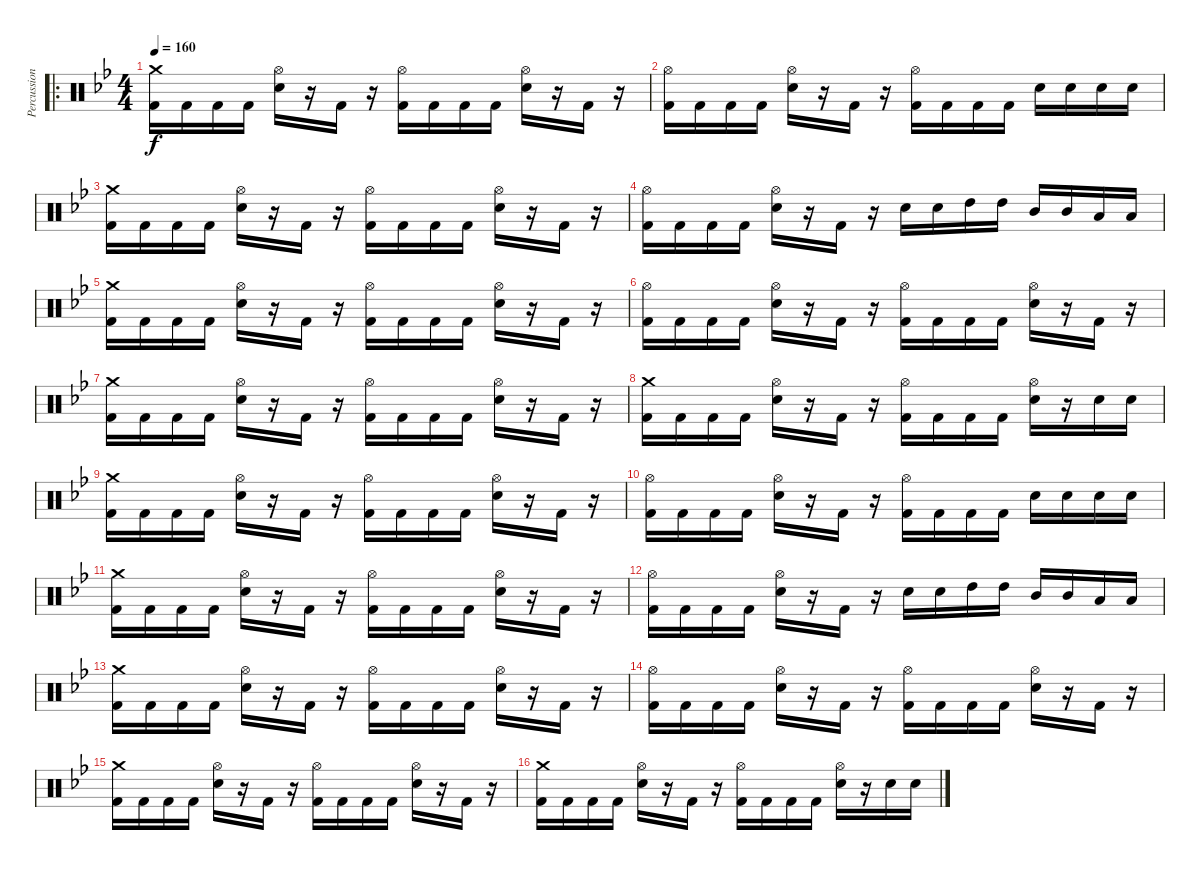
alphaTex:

\track ("Percussions" "Percussion") {instrument percussion}
\staff {score}
\articulation defaults
\ro
\ts (4 4)
\tempo 160
\clef neutral
\ks bb
("Crash medium (hit)" "Kick (hit) 2").16{dy f} "Kick (hit) 2".16 "Kick (hit) 2".16 "Kick (hit) 2".16 ("Hi-Hat (open)" "Snare (hit) 2").16 r.16 "Kick (hit) 2".16 r.16 ("Hi-Hat (open)" "Kick (hit) 2").16 "Kick (hit) 2".16 "Kick (hit) 2".16 "Kick (hit) 2".16 ("Hi-Hat (open)" "Snare (hit) 2").16 r.16 "Kick (hit) 2".16 r.16 |
("Hi-Hat (open)" "Kick (hit) 2").16 "Kick (hit) 2".16 "Kick (hit) 2".16 "Kick (hit) 2".16 ("Hi-Hat (open)" "Snare (hit) 2").16 r.16 "Kick (hit) 2".16 r.16 ("Hi-Hat (open)" "Kick (hit) 2").16 "Kick (hit) 2".16 "Kick (hit) 2".16 "Kick (hit) 2".16 "Snare (hit) 2".16 "Snare (hit) 2".16 "Snare (hit) 2".16 "Snare (hit) 2".16 |
("Crash medium (hit)" "Kick (hit) 2").16 "Kick (hit) 2".16 "Kick (hit) 2".16 "Kick (hit) 2".16 ("Hi-Hat (open)" "Snare (hit) 2").16 r.16 "Kick (hit) 2".16 r.16 ("Hi-Hat (open)" "Kick (hit) 2").16 "Kick (hit) 2".16 "Kick (hit) 2".16 "Kick (hit) 2".16 ("Hi-Hat (open)" "Snare (hit) 2").16 r.16 "Kick (hit) 2".16 r.16 |
("Hi-Hat (open)" "Kick (hit) 2").16 "Kick (hit) 2".16 "Kick (hit) 2".16 "Kick (hit) 2".16 ("Hi-Hat (open)" "Snare (hit) 2").16 r.16 "Kick (hit) 2".16 r.16 "Snare (hit) 2".16 "Snare (hit) 2".16 "High Tom (hit)".16 "High Tom (hit)".16 "Mid Tom (hit)".16 "Mid Tom (hit)".16 "Low Tom (hit)".16 "Low Tom (hit)".16 |
("Crash medium (hit)" "Kick (hit) 2").16 "Kick (hit) 2".16 "Kick (hit) 2".16 "Kick (hit) 2".16 ("Hi-Hat (open)" "Snare (hit) 2").16 r.16 "Kick (hit) 2".16 r.16 ("Hi-Hat (open)" "Kick (hit) 2").16 "Kick (hit) 2".16 "Kick (hit) 2".16 "Kick (hit) 2".16 ("Hi-Hat (open)" "Snare (hit) 2").16 r.16 "Kick (hit) 2".16 r.16 |
("Hi-Hat (open)" "Kick (hit) 2").16 "Kick (hit) 2".16 "Kick (hit) 2".16 "Kick (hit) 2".16 ("Hi-Hat (open)" "Snare (hit) 2").16 r.16 "Kick (hit) 2".16 r.16 ("Hi-Hat (open)" "Kick (hit) 2").16 "Kick (hit) 2".16 "Kick (hit) 2".16 "Kick (hit) 2".16 ("Hi-Hat (open)" "Snare (hit) 2").16 r.16 "Kick (hit) 2".16 r.16 |
("Crash medium (hit)" "Kick (hit) 2").16 "Kick (hit) 2".16 "Kick (hit) 2".16 "Kick (hit) 2".16 ("Hi-Hat (open)" "Snare (hit) 2").16 r.16 "Kick (hit) 2".16 r.16 ("Hi-Hat (open)" "Kick (hit) 2").16 "Kick (hit) 2".16 "Kick (hit) 2".16 "Kick (hit) 2".16 ("Hi-Hat (open)" "Snare (hit) 2").16 r.16 "Kick (hit) 2".16 r.16 |
("Crash medium (hit)" "Kick (hit) 2").16 "Kick (hit) 2".16 "Kick (hit) 2".16 "Kick (hit) 2".16 ("Hi-Hat (open)" "Snare (hit) 2").16 r.16 "Kick (hit) 2".16 r.16 ("Hi-Hat (open)" "Kick (hit) 2").16 "Kick (hit) 2".16 "Kick (hit) 2".16 "Kick (hit) 2".16 ("Hi-Hat (open)" "Snare (hit) 2").16 r.16 "Snare (hit) 2".16 "Snare (hit) 2".16 |
("Crash medium (hit)" "Kick (hit) 2").16 "Kick (hit) 2".16 "Kick (hit) 2".16 "Kick (hit) 2".16 ("Hi-Hat (open)" "Snare (hit) 2").16 r.16 "Kick (hit) 2".16 r.16 ("Hi-Hat (open)" "Kick (hit) 2").16 "Kick (hit) 2".16 "Kick (hit) 2".16 "Kick (hit) 2".16 ("Hi-Hat (open)" "Snare (hit) 2").16 r.16 "Kick (hit) 2".16 r.16 |
("Hi-Hat (open)" "Kick (hit) 2").16 "Kick (hit) 2".16 "Kick (hit) 2".16 "Kick (hit) 2".16 ("Hi-Hat (open)" "Snare (hit) 2").16 r.16 "Kick (hit) 2".16 r.16 ("Hi-Hat (open)" "Kick (hit) 2").16 "Kick (hit) 2".16 "Kick (hit) 2".16 "Kick (hit) 2".16 "Snare (hit) 2".16 "Snare (hit) 2".16 "Snare (hit) 2".16 "Snare (hit) 2".16 |
("Crash medium (hit)" "Kick (hit) 2").16 "Kick (hit) 2".16 "Kick (hit) 2".16 "Kick (hit) 2".16 ("Hi-Hat (open)" "Snare (hit) 2").16 r.16 "Kick (hit) 2".16 r.16 ("Hi-Hat (open)" "Kick (hit) 2").16 "Kick (hit) 2".16 "Kick (hit) 2".16 "Kick (hit) 2".16 ("Hi-Hat (open)" "Snare (hit) 2").16 r.16 "Kick (hit) 2".16 r.16 |
("Hi-Hat (open)" "Kick (hit) 2").16 "Kick (hit) 2".16 "Kick (hit) 2".16 "Kick (hit) 2".16 ("Hi-Hat (open)" "Snare (hit) 2").16 r.16 "Kick (hit) 2".16 r.16 "Snare (hit) 2".16 "Snare (hit) 2".16 "High Tom (hit)".16 "High Tom (hit)".16 "Mid Tom (hit)".16 "Mid Tom (hit)".16 "Low Tom (hit)".16 "Low Tom (hit)".16 |
("Crash medium (hit)" "Kick (hit) 2").16 "Kick (hit) 2".16 "Kick (hit) 2".16 "Kick (hit) 2".16 ("Hi-Hat (open)" "Snare (hit) 2").16 r.16 "Kick (hit) 2".16 r.16 ("Hi-Hat (open)" "Kick (hit) 2").16 "Kick (hit) 2".16 "Kick (hit) 2".16 "Kick (hit) 2".16 ("Hi-Hat (open)" "Snare (hit) 2").16 r.16 "Kick (hit) 2".16 r.16 |
("Hi-Hat (open)" "Kick (hit) 2").16 "Kick (hit) 2".16 "Kick (hit) 2".16 "Kick (hit) 2".16 ("Hi-Hat (open)" "Snare (hit) 2").16 r.16 "Kick (hit) 2".16 r.16 ("Hi-Hat (open)" "Kick (hit) 2").16 "Kick (hit) 2".16 "Kick (hit) 2".16 "Kick (hit) 2".16 ("Hi-Hat (open)" "Snare (hit) 2").16 r.16 "Kick (hit) 2".16 r.16 |
("Crash medium (hit)" "Kick (hit) 2").16 "Kick (hit) 2".16 "Kick (hit) 2".16 "Kick (hit) 2".16 ("Hi-Hat (open)" "Snare (hit) 2").16 r.16 "Kick (hit) 2".16 r.16 ("Hi-Hat (open)" "Kick (hit) 2").16 "Kick (hit) 2".16 "Kick (hit) 2".16 "Kick (hit) 2".16 ("Hi-Hat (open)" "Snare (hit) 2").16 r.16 "Kick (hit) 2".16 r.16 |
("Crash medium (hit)" "Kick (hit) 2").16 "Kick (hit) 2".16 "Kick (hit) 2".16 "Kick (hit) 2".16 ("Hi-Hat (open)" "Snare (hit) 2").16 r.16 "Kick (hit) 2".16 r.16 ("Hi-Hat (open)" "Kick (hit) 2").16 "Kick (hit) 2".16 "Kick (hit) 2".16 "Kick (hit) 2".16 ("Hi-Hat (open)" "Snare (hit) 2").16 r.16 "Snare (hit) 2".16 "Snare (hit) 2".16
